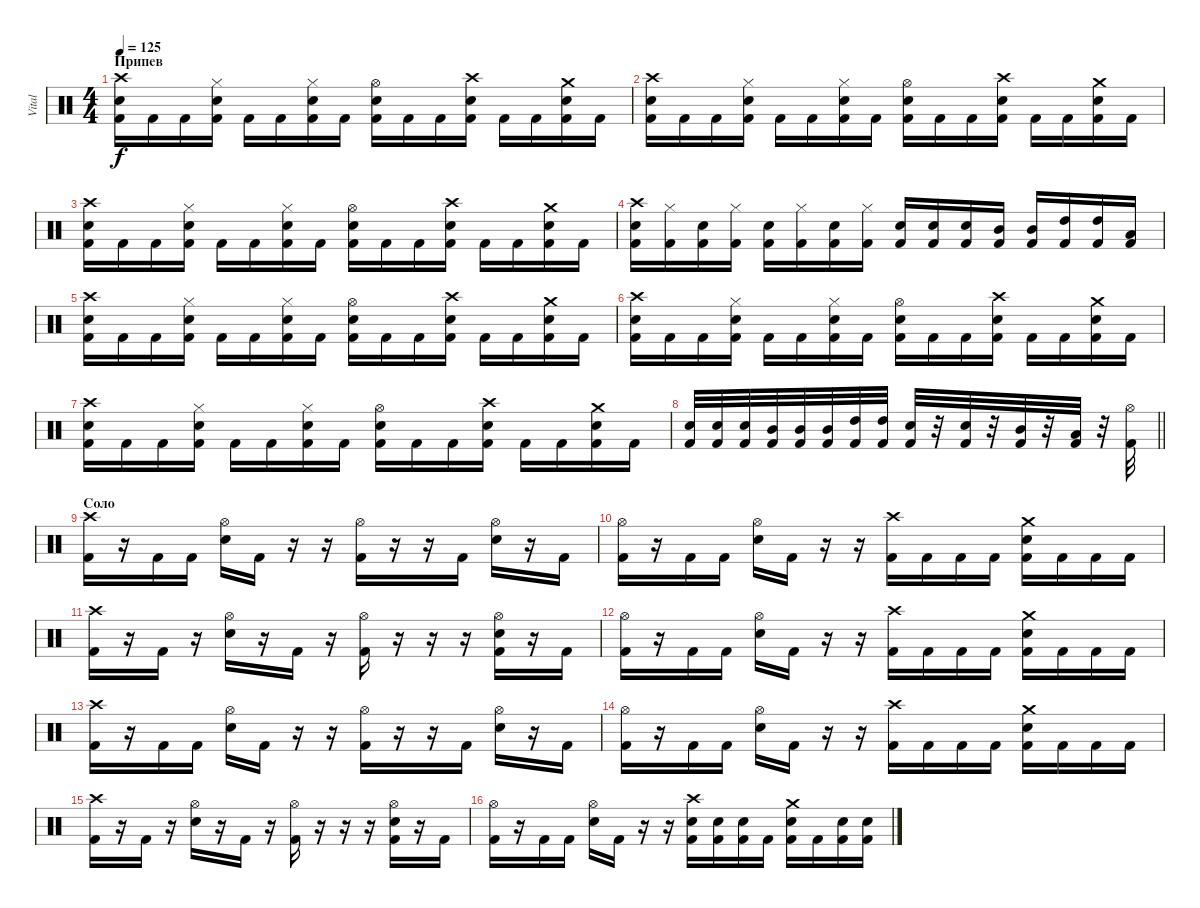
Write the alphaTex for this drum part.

\track ("Vital" "Vital") {instrument percussion}
\staff {score}
\articulation defaults
\ts (4 4)
\section ("" "Припев")
\tempo 125
\clef neutral
\ks c
("Crash high (hit)" "Snare (hit) 2" "Kick (hit) 2").16{dy f} "Kick (hit) 2".16 "Kick (hit) 2".16 ("Hi-Hat (closed)" "Snare (hit) 2" "Kick (hit) 2").16 "Kick (hit) 2".16 "Kick (hit) 2".16 ("Hi-Hat (closed)" "Snare (hit) 2" "Kick (hit) 2").16 "Kick (hit) 2".16 ("Hi-Hat (open)" "Snare (hit) 2" "Kick (hit) 2").16 "Kick (hit) 2".16 "Kick (hit) 2".16 ("Crash high (hit)" "Snare (hit) 2" "Kick (hit) 2").16 "Kick (hit) 2".16 "Kick (hit) 2".16 ("Crash medium (hit)" "Snare (hit) 2" "Kick (hit) 2").16 "Kick (hit) 2".16 |
("Crash high (hit)" "Snare (hit) 2" "Kick (hit) 2").16 "Kick (hit) 2".16 "Kick (hit) 2".16 ("Hi-Hat (closed)" "Snare (hit) 2" "Kick (hit) 2").16 "Kick (hit) 2".16 "Kick (hit) 2".16 ("Hi-Hat (closed)" "Snare (hit) 2" "Kick (hit) 2").16 "Kick (hit) 2".16 ("Hi-Hat (open)" "Snare (hit) 2" "Kick (hit) 2").16 "Kick (hit) 2".16 "Kick (hit) 2".16 ("Crash high (hit)" "Snare (hit) 2" "Kick (hit) 2").16 "Kick (hit) 2".16 "Kick (hit) 2".16 ("Crash medium (hit)" "Snare (hit) 2" "Kick (hit) 2").16 "Kick (hit) 2".16 |
("Crash high (hit)" "Snare (hit) 2" "Kick (hit) 2").16 "Kick (hit) 2".16 "Kick (hit) 2".16 ("Hi-Hat (closed)" "Snare (hit) 2" "Kick (hit) 2").16 "Kick (hit) 2".16 "Kick (hit) 2".16 ("Hi-Hat (closed)" "Snare (hit) 2" "Kick (hit) 2").16 "Kick (hit) 2".16 ("Hi-Hat (open)" "Snare (hit) 2" "Kick (hit) 2").16 "Kick (hit) 2".16 "Kick (hit) 2".16 ("Crash high (hit)" "Snare (hit) 2" "Kick (hit) 2").16 "Kick (hit) 2".16 "Kick (hit) 2".16 ("Crash medium (hit)" "Snare (hit) 2" "Kick (hit) 2").16 "Kick (hit) 2".16 |
("Crash high (hit)" "Snare (hit) 2" "Kick (hit) 2").16 ("Hi-Hat (closed)" "Kick (hit) 2").16 ("Snare (hit) 2" "Kick (hit) 2").16 ("Hi-Hat (closed)" "Kick (hit) 2").16 ("Snare (hit) 2" "Kick (hit) 2").16 ("Hi-Hat (closed)" "Kick (hit) 2").16 ("Snare (hit) 2" "Kick (hit) 2").16 ("Hi-Hat (closed)" "Kick (hit) 2").16 ("Snare (hit) 2" "Kick (hit) 2").16 ("Snare (hit) 2" "Kick (hit) 2").16 ("Snare (hit) 2" "Kick (hit) 2").16 ("Mid Tom (hit)" "Kick (hit) 2").16 ("Mid Tom (hit)" "Kick (hit) 2").16 ("High Tom (hit)" "Kick (hit) 2").16 ("High Tom (hit)" "Kick (hit) 2").16 ("Low Tom (hit)" "Kick (hit) 2").16 |
("Crash high (hit)" "Snare (hit) 2" "Kick (hit) 2").16 "Kick (hit) 2".16 "Kick (hit) 2".16 ("Hi-Hat (closed)" "Snare (hit) 2" "Kick (hit) 2").16 "Kick (hit) 2".16 "Kick (hit) 2".16 ("Hi-Hat (closed)" "Snare (hit) 2" "Kick (hit) 2").16 "Kick (hit) 2".16 ("Hi-Hat (open)" "Snare (hit) 2" "Kick (hit) 2").16 "Kick (hit) 2".16 "Kick (hit) 2".16 ("Crash high (hit)" "Snare (hit) 2" "Kick (hit) 2").16 "Kick (hit) 2".16 "Kick (hit) 2".16 ("Crash medium (hit)" "Snare (hit) 2" "Kick (hit) 2").16 "Kick (hit) 2".16 |
("Crash high (hit)" "Snare (hit) 2" "Kick (hit) 2").16 "Kick (hit) 2".16 "Kick (hit) 2".16 ("Hi-Hat (closed)" "Snare (hit) 2" "Kick (hit) 2").16 "Kick (hit) 2".16 "Kick (hit) 2".16 ("Hi-Hat (closed)" "Snare (hit) 2" "Kick (hit) 2").16 "Kick (hit) 2".16 ("Hi-Hat (open)" "Snare (hit) 2" "Kick (hit) 2").16 "Kick (hit) 2".16 "Kick (hit) 2".16 ("Crash high (hit)" "Snare (hit) 2" "Kick (hit) 2").16 "Kick (hit) 2".16 "Kick (hit) 2".16 ("Crash medium (hit)" "Snare (hit) 2" "Kick (hit) 2").16 "Kick (hit) 2".16 |
("Crash high (hit)" "Snare (hit) 2" "Kick (hit) 2").16 "Kick (hit) 2".16 "Kick (hit) 2".16 ("Hi-Hat (closed)" "Snare (hit) 2" "Kick (hit) 2").16 "Kick (hit) 2".16 "Kick (hit) 2".16 ("Hi-Hat (closed)" "Snare (hit) 2" "Kick (hit) 2").16 "Kick (hit) 2".16 ("Hi-Hat (open)" "Snare (hit) 2" "Kick (hit) 2").16 "Kick (hit) 2".16 "Kick (hit) 2".16 ("Crash high (hit)" "Snare (hit) 2" "Kick (hit) 2").16 "Kick (hit) 2".16 "Kick (hit) 2".16 ("Crash medium (hit)" "Snare (hit) 2" "Kick (hit) 2").16 "Kick (hit) 2".16 |
\barLineRight lightlight
("Snare (hit) 2" "Kick (hit) 2").32 ("Snare (hit) 2" "Kick (hit) 2").32 ("Snare (hit) 2" "Kick (hit) 2").32 ("Mid Tom (hit)" "Kick (hit) 2").32 ("Mid Tom (hit)" "Kick (hit) 2").32 ("Mid Tom (hit)" "Kick (hit) 2").32 ("High Tom (hit)" "Kick (hit) 2").32 ("High Tom (hit)" "Kick (hit) 2").32 ("Snare (hit) 2" "Kick (hit) 2").32 r.32 ("Snare (hit) 2" "Kick (hit) 2").32 r.32 ("Mid Tom (hit)" "Kick (hit) 2").32 r.32 ("Low Tom (hit)" "Kick (hit) 2").32 r.32 ("Hi-Hat (open)" "Kick (hit) 2").32 |
\section ("" "Соло ")
("Crash high (hit)" "Kick (hit) 2").16 r.16 "Kick (hit) 2".16 "Kick (hit) 2".16 ("Hi-Hat (open)" "Snare (hit) 2").16 "Kick (hit) 2".16 r.16 r.16 ("Hi-Hat (open)" "Kick (hit) 2").16 r.16 r.16 "Kick (hit) 2".16 ("Hi-Hat (open)" "Snare (hit) 2").16 r.16 "Kick (hit) 2".16 |
("Hi-Hat (open)" "Kick (hit) 2").16 r.16 "Kick (hit) 2".16 "Kick (hit) 2".16 ("Hi-Hat (open)" "Snare (hit) 2").16 "Kick (hit) 2".16 r.16 r.16 ("Crash high (hit)" "Kick (hit) 2").16 "Kick (hit) 2".16 "Kick (hit) 2".16 "Kick (hit) 2".16 ("Crash medium (hit)" "Snare (hit) 2" "Kick (hit) 2").16 "Kick (hit) 2".16 "Kick (hit) 2".16 "Kick (hit) 2".16 |
("Crash high (hit)" "Kick (hit) 2").16 r.16 "Kick (hit) 2".16 r.16 ("Hi-Hat (open)" "Snare (hit) 2").16 r.16 "Kick (hit) 2".16 r.16 ("Hi-Hat (open)" "Kick (hit) 2").16 r.16 r.16 r.16 ("Hi-Hat (open)" "Snare (hit) 2" "Kick (hit) 2").16 r.16 "Kick (hit) 2".16 |
("Hi-Hat (open)" "Kick (hit) 2").16 r.16 "Kick (hit) 2".16 "Kick (hit) 2".16 ("Hi-Hat (open)" "Snare (hit) 2").16 "Kick (hit) 2".16 r.16 r.16 ("Crash high (hit)" "Kick (hit) 2").16 "Kick (hit) 2".16 "Kick (hit) 2".16 "Kick (hit) 2".16 ("Crash medium (hit)" "Snare (hit) 2" "Kick (hit) 2").16 "Kick (hit) 2".16 "Kick (hit) 2".16 "Kick (hit) 2".16 |
("Crash high (hit)" "Kick (hit) 2").16 r.16 "Kick (hit) 2".16 "Kick (hit) 2".16 ("Hi-Hat (open)" "Snare (hit) 2").16 "Kick (hit) 2".16 r.16 r.16 ("Hi-Hat (open)" "Kick (hit) 2").16 r.16 r.16 "Kick (hit) 2".16 ("Hi-Hat (open)" "Snare (hit) 2").16 r.16 "Kick (hit) 2".16 |
("Hi-Hat (open)" "Kick (hit) 2").16 r.16 "Kick (hit) 2".16 "Kick (hit) 2".16 ("Hi-Hat (open)" "Snare (hit) 2").16 "Kick (hit) 2".16 r.16 r.16 ("Crash high (hit)" "Kick (hit) 2").16 "Kick (hit) 2".16 "Kick (hit) 2".16 "Kick (hit) 2".16 ("Crash medium (hit)" "Snare (hit) 2" "Kick (hit) 2").16 "Kick (hit) 2".16 "Kick (hit) 2".16 "Kick (hit) 2".16 |
("Crash high (hit)" "Kick (hit) 2").16 r.16 "Kick (hit) 2".16 r.16 ("Hi-Hat (open)" "Snare (hit) 2").16 r.16 "Kick (hit) 2".16 r.16 ("Hi-Hat (open)" "Kick (hit) 2").16 r.16 r.16 r.16 ("Hi-Hat (open)" "Snare (hit) 2" "Kick (hit) 2").16 r.16 "Kick (hit) 2".16 |
("Hi-Hat (open)" "Kick (hit) 2").16 r.16 "Kick (hit) 2".16 "Kick (hit) 2".16 ("Hi-Hat (open)" "Snare (hit) 2").16 "Kick (hit) 2".16 r.16 r.16 ("Crash high (hit)" "Snare (hit) 2" "Kick (hit) 2").16 ("Snare (hit) 2" "Kick (hit) 2").16 ("Snare (hit) 2" "Kick (hit) 2").16 "Kick (hit) 2".16 ("Crash medium (hit)" "Snare (hit) 2" "Kick (hit) 2").16 "Kick (hit) 2".16 ("Snare (hit) 2" "Kick (hit) 2").16 ("Snare (hit) 2" "Kick (hit) 2").16
